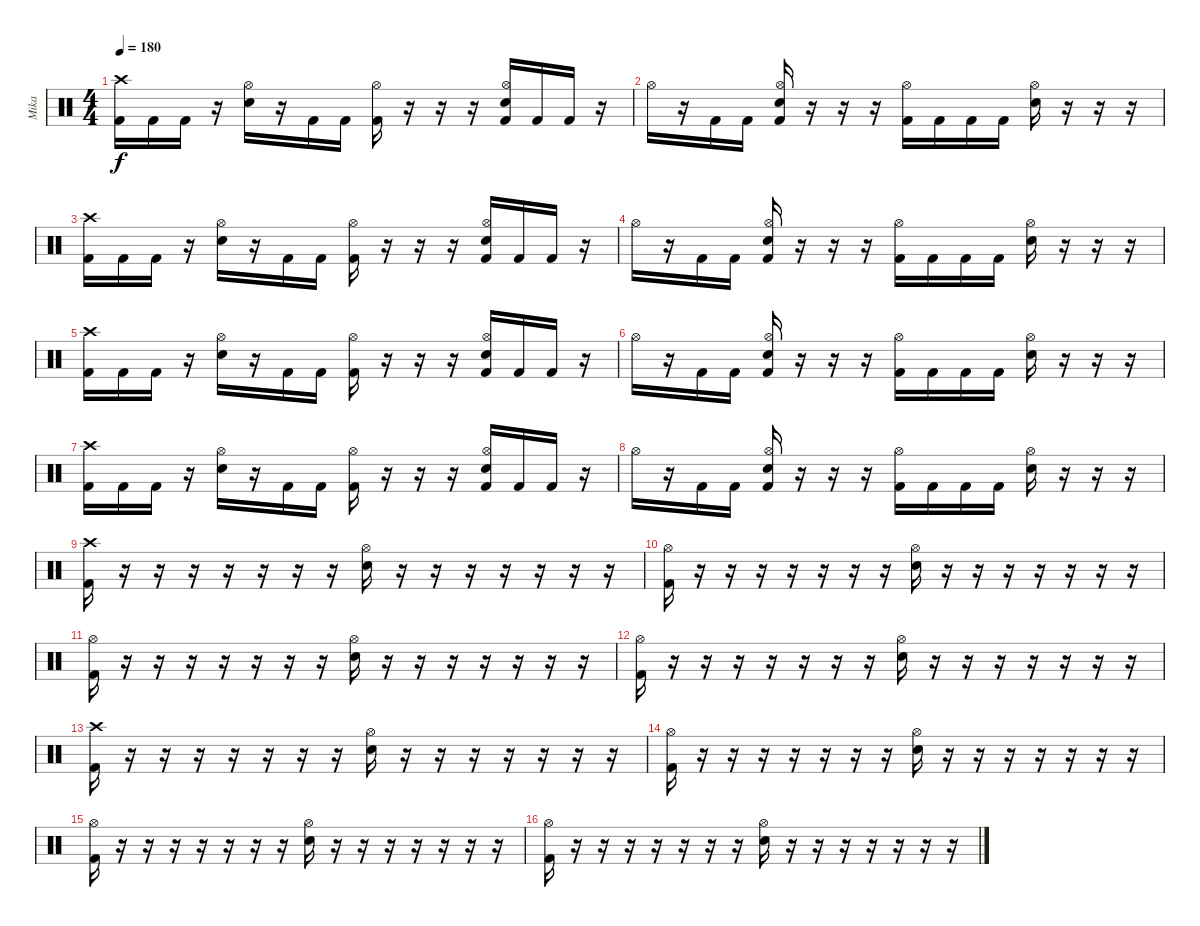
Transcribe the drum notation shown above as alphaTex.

\track ("Mika" "Mika") {instrument percussion}
\staff {score}
\articulation defaults
\ts (4 4)
\tempo 180
\clef neutral
\ks c
("Crash high (hit)" "Kick (hit) 2").16{dy f} "Kick (hit) 2".16 "Kick (hit) 2".16 r.16 ("Hi-Hat (open)" "Electric Snare (hit)").16 r.16 "Kick (hit) 2".16 "Kick (hit) 2".16 ("Hi-Hat (open)" "Kick (hit) 2").16 r.16 r.16 r.16 ("Hi-Hat (open)" "Electric Snare (hit)" "Kick (hit) 2").16 "Kick (hit) 2".16 "Kick (hit) 2".16 r.16 |
"Hi-Hat (open)".16 r.16 "Kick (hit) 2".16 "Kick (hit) 2".16 ("Hi-Hat (open)" "Electric Snare (hit)" "Kick (hit) 2").16 r.16 r.16 r.16 ("Hi-Hat (open)" "Kick (hit) 2").16 "Kick (hit) 2".16 "Kick (hit) 2".16 "Kick (hit) 2".16 ("Hi-Hat (open)" "Electric Snare (hit)").16 r.16 r.16 r.16 |
("Crash high (hit)" "Kick (hit) 2").16 "Kick (hit) 2".16 "Kick (hit) 2".16 r.16 ("Hi-Hat (open)" "Electric Snare (hit)").16 r.16 "Kick (hit) 2".16 "Kick (hit) 2".16 ("Hi-Hat (open)" "Kick (hit) 2").16 r.16 r.16 r.16 ("Hi-Hat (open)" "Electric Snare (hit)" "Kick (hit) 2").16 "Kick (hit) 2".16 "Kick (hit) 2".16 r.16 |
"Hi-Hat (open)".16 r.16 "Kick (hit) 2".16 "Kick (hit) 2".16 ("Hi-Hat (open)" "Electric Snare (hit)" "Kick (hit) 2").16 r.16 r.16 r.16 ("Hi-Hat (open)" "Kick (hit) 2").16 "Kick (hit) 2".16 "Kick (hit) 2".16 "Kick (hit) 2".16 ("Hi-Hat (open)" "Electric Snare (hit)").16 r.16 r.16 r.16 |
("Crash high (hit)" "Kick (hit) 2").16 "Kick (hit) 2".16 "Kick (hit) 2".16 r.16 ("Hi-Hat (open)" "Electric Snare (hit)").16 r.16 "Kick (hit) 2".16 "Kick (hit) 2".16 ("Hi-Hat (open)" "Kick (hit) 2").16 r.16 r.16 r.16 ("Hi-Hat (open)" "Electric Snare (hit)" "Kick (hit) 2").16 "Kick (hit) 2".16 "Kick (hit) 2".16 r.16 |
"Hi-Hat (open)".16 r.16 "Kick (hit) 2".16 "Kick (hit) 2".16 ("Hi-Hat (open)" "Electric Snare (hit)" "Kick (hit) 2").16 r.16 r.16 r.16 ("Hi-Hat (open)" "Kick (hit) 2").16 "Kick (hit) 2".16 "Kick (hit) 2".16 "Kick (hit) 2".16 ("Hi-Hat (open)" "Electric Snare (hit)").16 r.16 r.16 r.16 |
("Crash high (hit)" "Kick (hit) 2").16 "Kick (hit) 2".16 "Kick (hit) 2".16 r.16 ("Hi-Hat (open)" "Electric Snare (hit)").16 r.16 "Kick (hit) 2".16 "Kick (hit) 2".16 ("Hi-Hat (open)" "Kick (hit) 2").16 r.16 r.16 r.16 ("Hi-Hat (open)" "Electric Snare (hit)" "Kick (hit) 2").16 "Kick (hit) 2".16 "Kick (hit) 2".16 r.16 |
"Hi-Hat (open)".16 r.16 "Kick (hit) 2".16 "Kick (hit) 2".16 ("Hi-Hat (open)" "Electric Snare (hit)" "Kick (hit) 2").16 r.16 r.16 r.16 ("Hi-Hat (open)" "Kick (hit) 2").16 "Kick (hit) 2".16 "Kick (hit) 2".16 "Kick (hit) 2".16 ("Hi-Hat (open)" "Electric Snare (hit)").16 r.16 r.16 r.16 |
("Crash high (hit)" "Kick (hit) 2").16 r.16 r.16 r.16 r.16 r.16 r.16 r.16 ("Hi-Hat (open)" "Electric Snare (hit)").16 r.16 r.16 r.16 r.16 r.16 r.16 r.16 |
("Hi-Hat (open)" "Kick (hit) 2").16 r.16 r.16 r.16 r.16 r.16 r.16 r.16 ("Hi-Hat (open)" "Electric Snare (hit)").16 r.16 r.16 r.16 r.16 r.16 r.16 r.16 |
("Hi-Hat (open)" "Kick (hit) 2").16 r.16 r.16 r.16 r.16 r.16 r.16 r.16 ("Hi-Hat (open)" "Electric Snare (hit)").16 r.16 r.16 r.16 r.16 r.16 r.16 r.16 |
("Hi-Hat (open)" "Kick (hit) 2").16 r.16 r.16 r.16 r.16 r.16 r.16 r.16 ("Hi-Hat (open)" "Electric Snare (hit)").16 r.16 r.16 r.16 r.16 r.16 r.16 r.16 |
("Crash high (hit)" "Kick (hit) 2").16 r.16 r.16 r.16 r.16 r.16 r.16 r.16 ("Hi-Hat (open)" "Electric Snare (hit)").16 r.16 r.16 r.16 r.16 r.16 r.16 r.16 |
("Hi-Hat (open)" "Kick (hit) 2").16 r.16 r.16 r.16 r.16 r.16 r.16 r.16 ("Hi-Hat (open)" "Electric Snare (hit)").16 r.16 r.16 r.16 r.16 r.16 r.16 r.16 |
("Hi-Hat (open)" "Kick (hit) 2").16 r.16 r.16 r.16 r.16 r.16 r.16 r.16 ("Hi-Hat (open)" "Electric Snare (hit)").16 r.16 r.16 r.16 r.16 r.16 r.16 r.16 |
("Hi-Hat (open)" "Kick (hit) 2").16 r.16 r.16 r.16 r.16 r.16 r.16 r.16 ("Hi-Hat (open)" "Electric Snare (hit)").16 r.16 r.16 r.16 r.16 r.16 r.16 r.16
